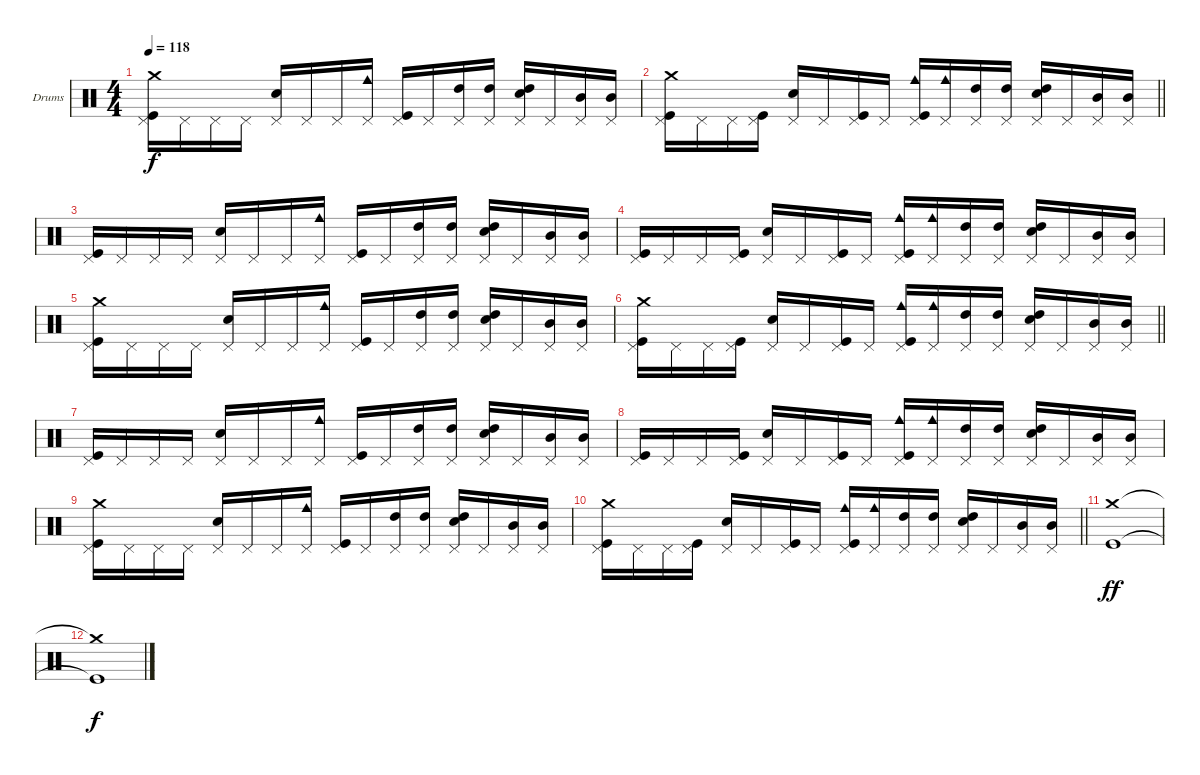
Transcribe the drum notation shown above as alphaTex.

\bracketExtendMode groupsimilarinstruments
\firstSystemTrackNameOrientation horizontal
\otherSystemsTrackNameOrientation horizontal
\track ("Уданые" "Drums") {instrument percussion}
\staff {score}
\articulation defaults
\ts (4 4)
\tempo 118
\clef neutral
\ks c
("Pedal Hi-Hat (hit)" "Kick (hit)" "Crash medium (hit)").16{dy f} "Pedal Hi-Hat (hit)".16 "Pedal Hi-Hat (hit)".16 "Pedal Hi-Hat (hit)".16 ("Pedal Hi-Hat (hit)" "Snare (hit) 2").16 "Pedal Hi-Hat (hit)".16 "Pedal Hi-Hat (hit)".16 ("Pedal Hi-Hat (hit)" "Cowbell medium (hit)").16 ("Pedal Hi-Hat (hit)" "Kick (hit)").16 "Pedal Hi-Hat (hit)".16 ("Pedal Hi-Hat (hit)" "High Tom (hit)").16 ("Pedal Hi-Hat (hit)" "High Tom (hit)").16 ("Pedal Hi-Hat (hit)" "High Tom (hit)" "Snare (hit) 2").16 "Pedal Hi-Hat (hit)".16 ("Pedal Hi-Hat (hit)" "Mid Tom (hit)").16 ("Pedal Hi-Hat (hit)" "Mid Tom (hit)").16 |
\barLineRight lightlight
("Pedal Hi-Hat (hit)" "Kick (hit)" "Crash medium (hit)").16 "Pedal Hi-Hat (hit)".16 "Pedal Hi-Hat (hit)".16 ("Pedal Hi-Hat (hit)" "Kick (hit)").16 ("Pedal Hi-Hat (hit)" "Snare (hit) 2").16 "Pedal Hi-Hat (hit)".16 ("Pedal Hi-Hat (hit)" "Kick (hit)").16 "Pedal Hi-Hat (hit)".16 ("Pedal Hi-Hat (hit)" "Kick (hit)" "Cowbell medium (hit)").16 ("Pedal Hi-Hat (hit)" "Cowbell medium (hit)").16 ("Pedal Hi-Hat (hit)" "High Tom (hit)").16 ("Pedal Hi-Hat (hit)" "High Tom (hit)").16 ("Pedal Hi-Hat (hit)" "High Tom (hit)" "Snare (hit) 2").16 "Pedal Hi-Hat (hit)".16 ("Pedal Hi-Hat (hit)" "Mid Tom (hit)").16 ("Pedal Hi-Hat (hit)" "Mid Tom (hit)").16 |
("Pedal Hi-Hat (hit)" "Kick (hit)").16 "Pedal Hi-Hat (hit)".16 "Pedal Hi-Hat (hit)".16 "Pedal Hi-Hat (hit)".16 ("Pedal Hi-Hat (hit)" "Snare (hit) 2").16 "Pedal Hi-Hat (hit)".16 "Pedal Hi-Hat (hit)".16 ("Pedal Hi-Hat (hit)" "Cowbell medium (hit)").16 ("Pedal Hi-Hat (hit)" "Kick (hit)").16 "Pedal Hi-Hat (hit)".16 ("Pedal Hi-Hat (hit)" "High Tom (hit)").16 ("Pedal Hi-Hat (hit)" "High Tom (hit)").16 ("Pedal Hi-Hat (hit)" "High Tom (hit)" "Snare (hit) 2").16 "Pedal Hi-Hat (hit)".16 ("Pedal Hi-Hat (hit)" "Mid Tom (hit)").16 ("Pedal Hi-Hat (hit)" "Mid Tom (hit)").16 |
("Pedal Hi-Hat (hit)" "Kick (hit)").16 "Pedal Hi-Hat (hit)".16 "Pedal Hi-Hat (hit)".16 ("Pedal Hi-Hat (hit)" "Kick (hit)").16 ("Pedal Hi-Hat (hit)" "Snare (hit) 2").16 "Pedal Hi-Hat (hit)".16 ("Pedal Hi-Hat (hit)" "Kick (hit)").16 "Pedal Hi-Hat (hit)".16 ("Pedal Hi-Hat (hit)" "Kick (hit)" "Cowbell medium (hit)").16 ("Pedal Hi-Hat (hit)" "Cowbell medium (hit)").16 ("Pedal Hi-Hat (hit)" "High Tom (hit)").16 ("Pedal Hi-Hat (hit)" "High Tom (hit)").16 ("Pedal Hi-Hat (hit)" "High Tom (hit)" "Snare (hit) 2").16 "Pedal Hi-Hat (hit)".16 ("Pedal Hi-Hat (hit)" "Mid Tom (hit)").16 ("Pedal Hi-Hat (hit)" "Mid Tom (hit)").16 |
("Pedal Hi-Hat (hit)" "Kick (hit)" "Crash medium (hit)").16 "Pedal Hi-Hat (hit)".16 "Pedal Hi-Hat (hit)".16 "Pedal Hi-Hat (hit)".16 ("Pedal Hi-Hat (hit)" "Snare (hit) 2").16 "Pedal Hi-Hat (hit)".16 "Pedal Hi-Hat (hit)".16 ("Pedal Hi-Hat (hit)" "Cowbell medium (hit)").16 ("Pedal Hi-Hat (hit)" "Kick (hit)").16 "Pedal Hi-Hat (hit)".16 ("Pedal Hi-Hat (hit)" "High Tom (hit)").16 ("Pedal Hi-Hat (hit)" "High Tom (hit)").16 ("Pedal Hi-Hat (hit)" "High Tom (hit)" "Snare (hit) 2").16 "Pedal Hi-Hat (hit)".16 ("Pedal Hi-Hat (hit)" "Mid Tom (hit)").16 ("Pedal Hi-Hat (hit)" "Mid Tom (hit)").16 |
\barLineRight lightlight
("Pedal Hi-Hat (hit)" "Kick (hit)" "Crash medium (hit)").16 "Pedal Hi-Hat (hit)".16 "Pedal Hi-Hat (hit)".16 ("Pedal Hi-Hat (hit)" "Kick (hit)").16 ("Pedal Hi-Hat (hit)" "Snare (hit) 2").16 "Pedal Hi-Hat (hit)".16 ("Pedal Hi-Hat (hit)" "Kick (hit)").16 "Pedal Hi-Hat (hit)".16 ("Pedal Hi-Hat (hit)" "Kick (hit)" "Cowbell medium (hit)").16 ("Pedal Hi-Hat (hit)" "Cowbell medium (hit)").16 ("Pedal Hi-Hat (hit)" "High Tom (hit)").16 ("Pedal Hi-Hat (hit)" "High Tom (hit)").16 ("Pedal Hi-Hat (hit)" "High Tom (hit)" "Snare (hit) 2").16 "Pedal Hi-Hat (hit)".16 ("Pedal Hi-Hat (hit)" "Mid Tom (hit)").16 ("Pedal Hi-Hat (hit)" "Mid Tom (hit)").16 |
("Pedal Hi-Hat (hit)" "Kick (hit)").16 "Pedal Hi-Hat (hit)".16 "Pedal Hi-Hat (hit)".16 "Pedal Hi-Hat (hit)".16 ("Pedal Hi-Hat (hit)" "Snare (hit) 2").16 "Pedal Hi-Hat (hit)".16 "Pedal Hi-Hat (hit)".16 ("Pedal Hi-Hat (hit)" "Cowbell medium (hit)").16 ("Pedal Hi-Hat (hit)" "Kick (hit)").16 "Pedal Hi-Hat (hit)".16 ("Pedal Hi-Hat (hit)" "High Tom (hit)").16 ("Pedal Hi-Hat (hit)" "High Tom (hit)").16 ("Pedal Hi-Hat (hit)" "High Tom (hit)" "Snare (hit) 2").16 "Pedal Hi-Hat (hit)".16 ("Pedal Hi-Hat (hit)" "Mid Tom (hit)").16 ("Pedal Hi-Hat (hit)" "Mid Tom (hit)").16 |
("Pedal Hi-Hat (hit)" "Kick (hit)").16 "Pedal Hi-Hat (hit)".16 "Pedal Hi-Hat (hit)".16 ("Pedal Hi-Hat (hit)" "Kick (hit)").16 ("Pedal Hi-Hat (hit)" "Snare (hit) 2").16 "Pedal Hi-Hat (hit)".16 ("Pedal Hi-Hat (hit)" "Kick (hit)").16 "Pedal Hi-Hat (hit)".16 ("Pedal Hi-Hat (hit)" "Kick (hit)" "Cowbell medium (hit)").16 ("Pedal Hi-Hat (hit)" "Cowbell medium (hit)").16 ("Pedal Hi-Hat (hit)" "High Tom (hit)").16 ("Pedal Hi-Hat (hit)" "High Tom (hit)").16 ("Pedal Hi-Hat (hit)" "High Tom (hit)" "Snare (hit) 2").16 "Pedal Hi-Hat (hit)".16 ("Pedal Hi-Hat (hit)" "Mid Tom (hit)").16 ("Pedal Hi-Hat (hit)" "Mid Tom (hit)").16 |
("Pedal Hi-Hat (hit)" "Kick (hit)" "Crash medium (hit)").16 "Pedal Hi-Hat (hit)".16 "Pedal Hi-Hat (hit)".16 "Pedal Hi-Hat (hit)".16 ("Pedal Hi-Hat (hit)" "Snare (hit) 2").16 "Pedal Hi-Hat (hit)".16 "Pedal Hi-Hat (hit)".16 ("Pedal Hi-Hat (hit)" "Cowbell medium (hit)").16 ("Pedal Hi-Hat (hit)" "Kick (hit)").16 "Pedal Hi-Hat (hit)".16 ("Pedal Hi-Hat (hit)" "High Tom (hit)").16 ("Pedal Hi-Hat (hit)" "High Tom (hit)").16 ("Pedal Hi-Hat (hit)" "High Tom (hit)" "Snare (hit) 2").16 "Pedal Hi-Hat (hit)".16 ("Pedal Hi-Hat (hit)" "Mid Tom (hit)").16 ("Pedal Hi-Hat (hit)" "Mid Tom (hit)").16 |
\barLineRight lightlight
("Pedal Hi-Hat (hit)" "Kick (hit)" "Crash medium (hit)").16 "Pedal Hi-Hat (hit)".16 "Pedal Hi-Hat (hit)".16 ("Pedal Hi-Hat (hit)" "Kick (hit)").16 ("Pedal Hi-Hat (hit)" "Snare (hit) 2").16 "Pedal Hi-Hat (hit)".16 ("Pedal Hi-Hat (hit)" "Kick (hit)").16 "Pedal Hi-Hat (hit)".16 ("Pedal Hi-Hat (hit)" "Kick (hit)" "Cowbell medium (hit)").16 ("Pedal Hi-Hat (hit)" "Cowbell medium (hit)").16 ("Pedal Hi-Hat (hit)" "High Tom (hit)").16 ("Pedal Hi-Hat (hit)" "High Tom (hit)").16 ("Pedal Hi-Hat (hit)" "High Tom (hit)" "Snare (hit) 2").16 "Pedal Hi-Hat (hit)".16 ("Pedal Hi-Hat (hit)" "Mid Tom (hit)").16 ("Pedal Hi-Hat (hit)" "Mid Tom (hit)").16 |
("Kick (hit)" "Crash medium (hit)").1{dy ff} |
("Kick (hit)"{t} "Crash medium (hit)"{t}).1{dy f}
